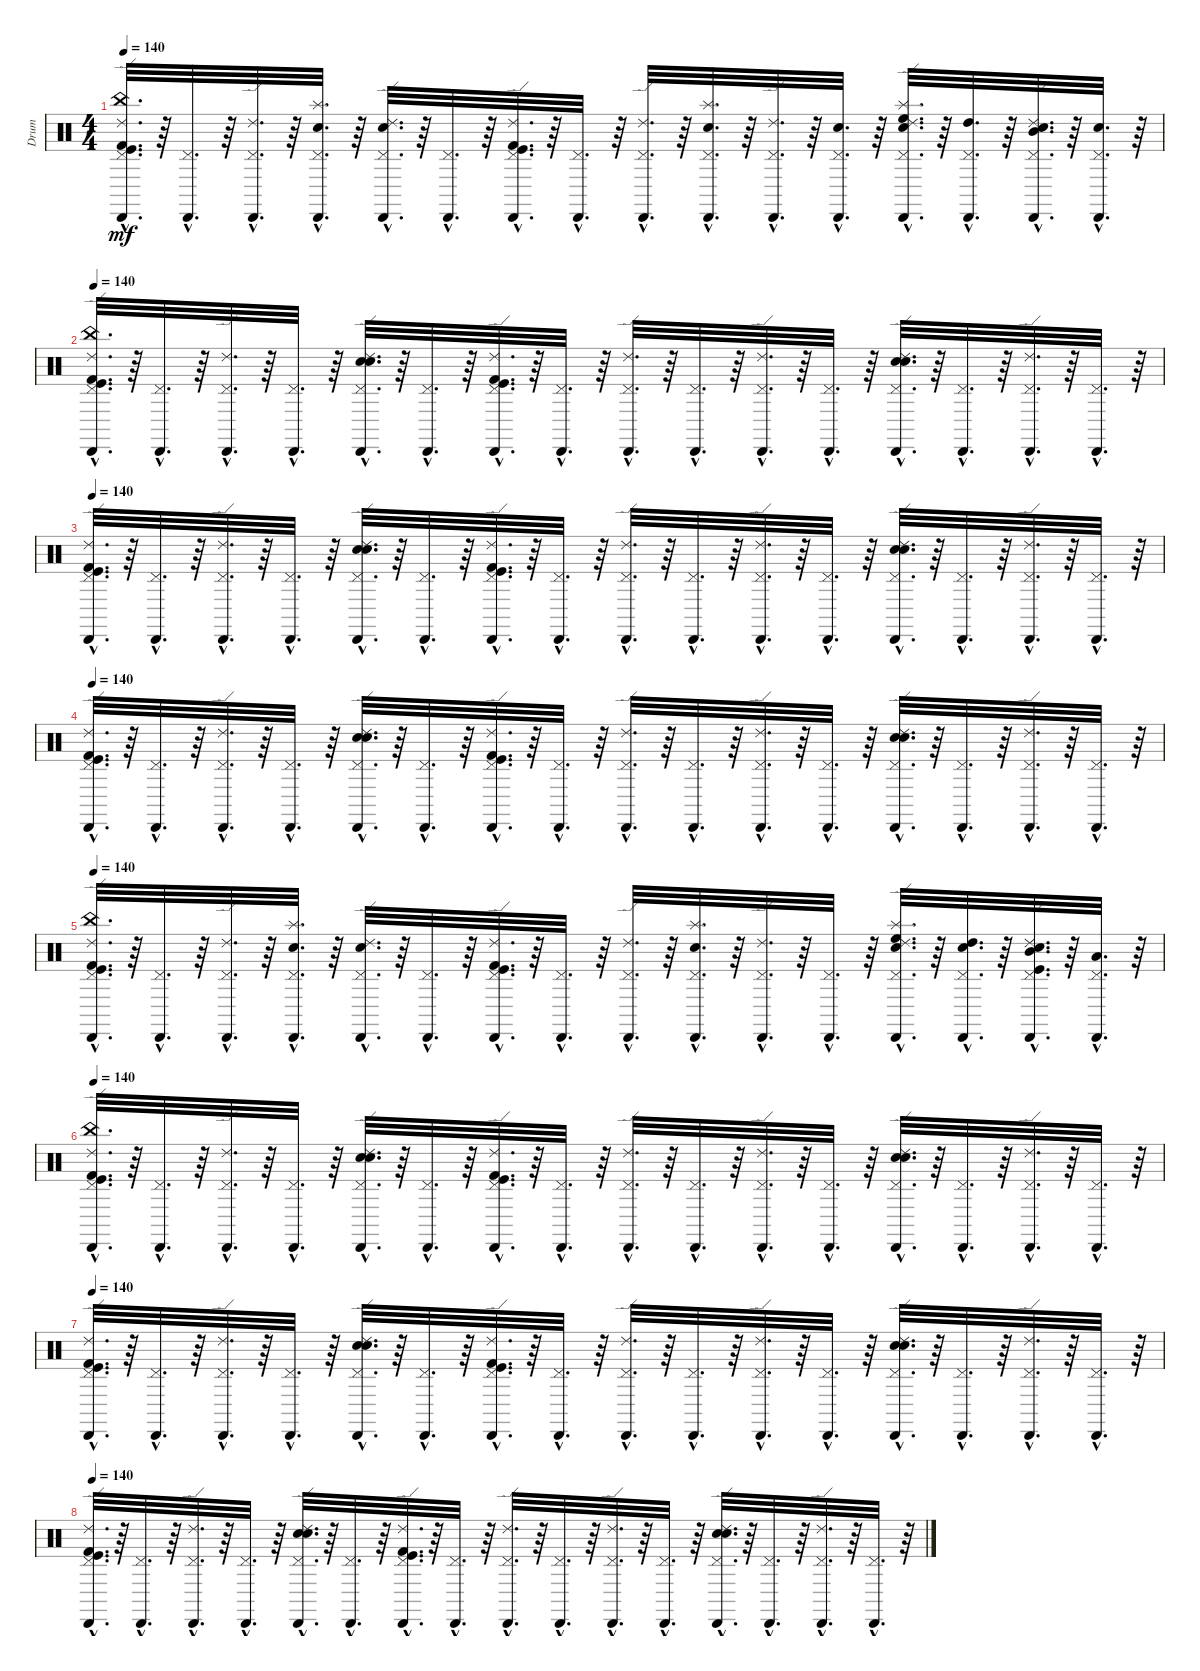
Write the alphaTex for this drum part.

\track ("Drum" "Drum") {instrument percussion}
\staff {score}
\articulation defaults
\ts (4 4)
\tempo 140
\clef neutral
\ks c
("Pedal Hi-Hat (hit)"{hac} "Kick (hit)"{hac} "Kick (hit) 2"{hac} "Ride (edge) 2"{hac} "Cabasa (hit)"{hac} "China (hit)"{hac}).32{d dy mf} r.64 ("Cabasa (hit)"{hac} "Pedal Hi-Hat (hit)"{hac}).32{d} r.64 ("Pedal Hi-Hat (hit)"{hac} "Cabasa (hit)"{hac} "Ride (edge) 2"{hac}).32{d} r.64 ("Cabasa (hit)"{hac} "Pedal Hi-Hat (hit)"{hac} "Snare (hit) 2"{hac} "Splash (hit)"{hac}).32{d} r.64 ("Pedal Hi-Hat (hit)"{hac} "Cabasa (hit)"{hac} "Ride (edge) 2"{hac} "Snare (hit) 2"{hac}).32{d} r.64 ("Pedal Hi-Hat (hit)"{hac} "Cabasa (hit)"{hac}).32{d} r.64 ("Pedal Hi-Hat (hit)"{hac} "Kick (hit) 2"{hac} "Kick (hit)"{hac} "Cabasa (hit)"{hac} "Ride (edge) 2"{hac}).32{d} r.64 ("Cabasa (hit)"{hac} "Pedal Hi-Hat (hit)"{hac}).32{d} r.64 ("Ride (edge) 2"{hac} "Pedal Hi-Hat (hit)"{hac} "Cabasa (hit)"{hac}).32{d} r.64 ("Cabasa (hit)"{hac} "Pedal Hi-Hat (hit)"{hac} "Snare (hit) 2"{hac} "Splash (hit)"{hac}).32{d} r.64 ("Ride (edge) 2"{hac} "Cabasa (hit)"{hac} "Pedal Hi-Hat (hit)"{hac}).32{d} r.64 ("Cabasa (hit)"{hac} "Pedal Hi-Hat (hit)"{hac} "Snare (hit) 2"{hac}).32{d} r.64 ("Pedal Hi-Hat (hit)"{hac} "Cabasa (hit)"{hac} "Ride (edge) 2"{hac} "Snare (hit) 2"{hac} "High Floor Tom (hit)"{hac} "Splash (hit)"{hac}).32{d} r.64 ("Cabasa (hit)"{hac} "Pedal Hi-Hat (hit)"{hac} "High Tom (hit)"{hac}).32{d} r.64 ("Pedal Hi-Hat (hit)"{hac} "Cabasa (hit)"{hac} "Ride (edge) 2"{hac} "Snare (hit) 2"{hac} "Mid Tom (hit)"{hac}).32{d} r.64 ("Cabasa (hit)"{hac} "Pedal Hi-Hat (hit)"{hac} "Snare (hit) 2"{hac}).32{d} r.64 |
\tempo 140
("China (hit)"{hac} "Ride (edge) 2"{hac} "Pedal Hi-Hat (hit)"{hac} "Cabasa (hit)"{hac} "Kick (hit)"{hac} "Kick (hit) 2"{hac}).32{d} r.64 ("Pedal Hi-Hat (hit)"{hac} "Cabasa (hit)"{hac}).32{d} r.64 ("Pedal Hi-Hat (hit)"{hac} "Cabasa (hit)"{hac} "Ride (edge) 2"{hac}).32{d} r.64 ("Pedal Hi-Hat (hit)"{hac} "Cabasa (hit)"{hac}).32{d} r.64 ("Pedal Hi-Hat (hit)"{hac} "Snare (hit) 2"{hac} "Ride (edge) 2"{hac} "Electric Snare (hit)"{hac} "Cabasa (hit)"{hac}).32{d} r.64 ("Cabasa (hit)"{hac} "Pedal Hi-Hat (hit)"{hac}).32{d} r.64 ("Kick (hit)"{hac} "Ride (edge) 2"{hac} "Pedal Hi-Hat (hit)"{hac} "Kick (hit) 2"{hac} "Cabasa (hit)"{hac}).32{d} r.64 ("Cabasa (hit)"{hac} "Pedal Hi-Hat (hit)"{hac}).32{d} r.64 ("Pedal Hi-Hat (hit)"{hac} "Ride (edge) 2"{hac} "Cabasa (hit)"{hac}).32{d} r.64 ("Cabasa (hit)"{hac} "Pedal Hi-Hat (hit)"{hac}).32{d} r.64 ("Ride (edge) 2"{hac} "Pedal Hi-Hat (hit)"{hac} "Cabasa (hit)"{hac}).32{d} r.64 ("Pedal Hi-Hat (hit)"{hac} "Cabasa (hit)"{hac}).32{d} r.64 ("Pedal Hi-Hat (hit)"{hac} "Cabasa (hit)"{hac} "Ride (edge) 2"{hac} "Snare (hit) 2"{hac} "Electric Snare (hit)"{hac}).32{d} r.64 ("Pedal Hi-Hat (hit)"{hac} "Cabasa (hit)"{hac}).32{d} r.64 ("Pedal Hi-Hat (hit)"{hac} "Cabasa (hit)"{hac} "Ride (edge) 2"{hac}).32{d} r.64 ("Pedal Hi-Hat (hit)"{hac} "Cabasa (hit)"{hac}).32{d} r.64 |
\tempo 140
("Cabasa (hit)"{hac} "Kick (hit) 2"{hac} "Pedal Hi-Hat (hit)"{hac} "Kick (hit)"{hac} "Ride (edge) 2"{hac}).32{d} r.64 ("Pedal Hi-Hat (hit)"{hac} "Cabasa (hit)"{hac}).32{d} r.64 ("Ride (edge) 2"{hac} "Pedal Hi-Hat (hit)"{hac} "Cabasa (hit)"{hac}).32{d} r.64 ("Cabasa (hit)"{hac} "Pedal Hi-Hat (hit)"{hac}).32{d} r.64 ("Pedal Hi-Hat (hit)"{hac} "Cabasa (hit)"{hac} "Snare (hit) 2"{hac} "Electric Snare (hit)"{hac} "Ride (edge) 2"{hac}).32{d} r.64 ("Pedal Hi-Hat (hit)"{hac} "Cabasa (hit)"{hac}).32{d} r.64 ("Ride (edge) 2"{hac} "Kick (hit)"{hac} "Kick (hit) 2"{hac} "Pedal Hi-Hat (hit)"{hac} "Cabasa (hit)"{hac}).32{d} r.64 ("Cabasa (hit)"{hac} "Pedal Hi-Hat (hit)"{hac}).32{d} r.64 ("Pedal Hi-Hat (hit)"{hac} "Ride (edge) 2"{hac} "Cabasa (hit)"{hac}).32{d} r.64 ("Cabasa (hit)"{hac} "Pedal Hi-Hat (hit)"{hac}).32{d} r.64 ("Pedal Hi-Hat (hit)"{hac} "Cabasa (hit)"{hac} "Ride (edge) 2"{hac}).32{d} r.64 ("Cabasa (hit)"{hac} "Pedal Hi-Hat (hit)"{hac}).32{d} r.64 ("Pedal Hi-Hat (hit)"{hac} "Electric Snare (hit)"{hac} "Cabasa (hit)"{hac} "Snare (hit) 2"{hac} "Ride (edge) 2"{hac}).32{d} r.64 ("Cabasa (hit)"{hac} "Pedal Hi-Hat (hit)"{hac}).32{d} r.64 ("Cabasa (hit)"{hac} "Pedal Hi-Hat (hit)"{hac} "Ride (edge) 2"{hac}).32{d} r.64 ("Cabasa (hit)"{hac} "Pedal Hi-Hat (hit)"{hac}).32{d} r.64 |
\tempo 140
("Kick (hit) 2"{hac} "Ride (edge) 2"{hac} "Pedal Hi-Hat (hit)"{hac} "Cabasa (hit)"{hac} "Kick (hit)"{hac}).32{d} r.64 ("Cabasa (hit)"{hac} "Pedal Hi-Hat (hit)"{hac}).32{d} r.64 ("Pedal Hi-Hat (hit)"{hac} "Cabasa (hit)"{hac} "Ride (edge) 2"{hac}).32{d} r.64 ("Pedal Hi-Hat (hit)"{hac} "Cabasa (hit)"{hac}).32{d} r.64 ("Ride (edge) 2"{hac} "Snare (hit) 2"{hac} "Pedal Hi-Hat (hit)"{hac} "Cabasa (hit)"{hac} "Electric Snare (hit)"{hac}).32{d} r.64 ("Pedal Hi-Hat (hit)"{hac} "Cabasa (hit)"{hac}).32{d} r.64 ("Ride (edge) 2"{hac} "Kick (hit)"{hac} "Cabasa (hit)"{hac} "Kick (hit) 2"{hac} "Pedal Hi-Hat (hit)"{hac}).32{d} r.64 ("Cabasa (hit)"{hac} "Pedal Hi-Hat (hit)"{hac}).32{d} r.64 ("Cabasa (hit)"{hac} "Pedal Hi-Hat (hit)"{hac} "Ride (edge) 2"{hac}).32{d} r.64 ("Cabasa (hit)"{hac} "Pedal Hi-Hat (hit)"{hac}).32{d} r.64 ("Cabasa (hit)"{hac} "Pedal Hi-Hat (hit)"{hac} "Ride (edge) 2"{hac}).32{d} r.64 ("Pedal Hi-Hat (hit)"{hac} "Cabasa (hit)"{hac}).32{d} r.64 ("Electric Snare (hit)"{hac} "Snare (hit) 2"{hac} "Ride (edge) 2"{hac} "Pedal Hi-Hat (hit)"{hac} "Cabasa (hit)"{hac}).32{d} r.64 ("Pedal Hi-Hat (hit)"{hac} "Cabasa (hit)"{hac}).32{d} r.64 ("Cabasa (hit)"{hac} "Pedal Hi-Hat (hit)"{hac} "Ride (edge) 2"{hac}).32{d} r.64 ("Pedal Hi-Hat (hit)"{hac} "Cabasa (hit)"{hac}).32{d} r.64 |
\tempo 140
("China (hit)"{hac} "Cabasa (hit)"{hac} "Ride (edge) 2"{hac} "Kick (hit) 2"{hac} "Kick (hit)"{hac} "Pedal Hi-Hat (hit)"{hac}).32{d} r.64 ("Pedal Hi-Hat (hit)"{hac} "Cabasa (hit)"{hac}).32{d} r.64 ("Ride (edge) 2"{hac} "Cabasa (hit)"{hac} "Pedal Hi-Hat (hit)"{hac}).32{d} r.64 ("Splash (hit)"{hac} "Snare (hit) 2"{hac} "Pedal Hi-Hat (hit)"{hac} "Cabasa (hit)"{hac}).32{d} r.64 ("Snare (hit) 2"{hac} "Ride (edge) 2"{hac} "Cabasa (hit)"{hac} "Pedal Hi-Hat (hit)"{hac}).32{d} r.64 ("Cabasa (hit)"{hac} "Pedal Hi-Hat (hit)"{hac}).32{d} r.64 ("Ride (edge) 2"{hac} "Cabasa (hit)"{hac} "Kick (hit)"{hac} "Kick (hit) 2"{hac} "Pedal Hi-Hat (hit)"{hac}).32{d} r.64 ("Pedal Hi-Hat (hit)"{hac} "Cabasa (hit)"{hac}).32{d} r.64 ("Cabasa (hit)"{hac} "Pedal Hi-Hat (hit)"{hac} "Ride (edge) 2"{hac}).32{d} r.64 ("Splash (hit)"{hac} "Snare (hit) 2"{hac} "Pedal Hi-Hat (hit)"{hac} "Cabasa (hit)"{hac}).32{d} r.64 ("Pedal Hi-Hat (hit)"{hac} "Cabasa (hit)"{hac} "Ride (edge) 2"{hac}).32{d} r.64 ("Pedal Hi-Hat (hit)"{hac} "Cabasa (hit)"{hac}).32{d} r.64 ("High Floor Tom (hit)"{hac} "Splash (hit)"{hac} "Snare (hit) 2"{hac} "Ride (edge) 2"{hac} "Cabasa (hit)"{hac} "Pedal Hi-Hat (hit)"{hac}).32{d} r.64 ("High Tom (hit)"{hac} "Snare (hit) 2"{hac} "Pedal Hi-Hat (hit)"{hac} "Cabasa (hit)"{hac}).32{d} r.64 ("Kick (hit)"{hac} "Mid Tom (hit)"{hac} "Snare (hit) 2"{hac} "Ride (edge) 2"{hac} "Cabasa (hit)"{hac} "Pedal Hi-Hat (hit)"{hac}).32{d} r.64 ("Low Tom (hit)"{hac} "Pedal Hi-Hat (hit)"{hac} "Cabasa (hit)"{hac}).32{d} r.64 |
\tempo 140
("Kick (hit) 2"{hac} "Kick (hit)"{hac} "Cabasa (hit)"{hac} "Pedal Hi-Hat (hit)"{hac} "Ride (edge) 2"{hac} "China (hit)"{hac}).32{d} r.64 ("Cabasa (hit)"{hac} "Pedal Hi-Hat (hit)"{hac}).32{d} r.64 ("Ride (edge) 2"{hac} "Cabasa (hit)"{hac} "Pedal Hi-Hat (hit)"{hac}).32{d} r.64 ("Cabasa (hit)"{hac} "Pedal Hi-Hat (hit)"{hac}).32{d} r.64 ("Cabasa (hit)"{hac} "Electric Snare (hit)"{hac} "Ride (edge) 2"{hac} "Snare (hit) 2"{hac} "Pedal Hi-Hat (hit)"{hac}).32{d} r.64 ("Pedal Hi-Hat (hit)"{hac} "Cabasa (hit)"{hac}).32{d} r.64 ("Cabasa (hit)"{hac} "Kick (hit) 2"{hac} "Pedal Hi-Hat (hit)"{hac} "Ride (edge) 2"{hac} "Kick (hit)"{hac}).32{d} r.64 ("Pedal Hi-Hat (hit)"{hac} "Cabasa (hit)"{hac}).32{d} r.64 ("Cabasa (hit)"{hac} "Ride (edge) 2"{hac} "Pedal Hi-Hat (hit)"{hac}).32{d} r.64 ("Pedal Hi-Hat (hit)"{hac} "Cabasa (hit)"{hac}).32{d} r.64 ("Cabasa (hit)"{hac} "Pedal Hi-Hat (hit)"{hac} "Ride (edge) 2"{hac}).32{d} r.64 ("Cabasa (hit)"{hac} "Pedal Hi-Hat (hit)"{hac}).32{d} r.64 ("Electric Snare (hit)"{hac} "Snare (hit) 2"{hac} "Ride (edge) 2"{hac} "Cabasa (hit)"{hac} "Pedal Hi-Hat (hit)"{hac}).32{d} r.64 ("Cabasa (hit)"{hac} "Pedal Hi-Hat (hit)"{hac}).32{d} r.64 ("Ride (edge) 2"{hac} "Cabasa (hit)"{hac} "Pedal Hi-Hat (hit)"{hac}).32{d} r.64 ("Cabasa (hit)"{hac} "Pedal Hi-Hat (hit)"{hac}).32{d} r.64 |
\tempo 140
("Ride (edge) 2"{hac} "Kick (hit)"{hac} "Pedal Hi-Hat (hit)"{hac} "Kick (hit) 2"{hac} "Cabasa (hit)"{hac}).32{d} r.64 ("Cabasa (hit)"{hac} "Pedal Hi-Hat (hit)"{hac}).32{d} r.64 ("Cabasa (hit)"{hac} "Pedal Hi-Hat (hit)"{hac} "Ride (edge) 2"{hac}).32{d} r.64 ("Pedal Hi-Hat (hit)"{hac} "Cabasa (hit)"{hac}).32{d} r.64 ("Ride (edge) 2"{hac} "Electric Snare (hit)"{hac} "Snare (hit) 2"{hac} "Cabasa (hit)"{hac} "Pedal Hi-Hat (hit)"{hac}).32{d} r.64 ("Cabasa (hit)"{hac} "Pedal Hi-Hat (hit)"{hac}).32{d} r.64 ("Cabasa (hit)"{hac} "Pedal Hi-Hat (hit)"{hac} "Kick (hit) 2"{hac} "Kick (hit)"{hac} "Ride (edge) 2"{hac}).32{d} r.64 ("Pedal Hi-Hat (hit)"{hac} "Cabasa (hit)"{hac}).32{d} r.64 ("Cabasa (hit)"{hac} "Ride (edge) 2"{hac} "Pedal Hi-Hat (hit)"{hac}).32{d} r.64 ("Pedal Hi-Hat (hit)"{hac} "Cabasa (hit)"{hac}).32{d} r.64 ("Ride (edge) 2"{hac} "Cabasa (hit)"{hac} "Pedal Hi-Hat (hit)"{hac}).32{d} r.64 ("Pedal Hi-Hat (hit)"{hac} "Cabasa (hit)"{hac}).32{d} r.64 ("Ride (edge) 2"{hac} "Snare (hit) 2"{hac} "Cabasa (hit)"{hac} "Electric Snare (hit)"{hac} "Pedal Hi-Hat (hit)"{hac}).32{d} r.64 ("Pedal Hi-Hat (hit)"{hac} "Cabasa (hit)"{hac}).32{d} r.64 ("Ride (edge) 2"{hac} "Pedal Hi-Hat (hit)"{hac} "Cabasa (hit)"{hac}).32{d} r.64 ("Pedal Hi-Hat (hit)"{hac} "Cabasa (hit)"{hac}).32{d} r.64 |
\tempo 140
("Kick (hit)"{hac} "Cabasa (hit)"{hac} "Pedal Hi-Hat (hit)"{hac} "Ride (edge) 2"{hac} "Kick (hit) 2"{hac}).32{d} r.64 ("Pedal Hi-Hat (hit)"{hac} "Cabasa (hit)"{hac}).32{d} r.64 ("Ride (edge) 2"{hac} "Cabasa (hit)"{hac} "Pedal Hi-Hat (hit)"{hac}).32{d} r.64 ("Cabasa (hit)"{hac} "Pedal Hi-Hat (hit)"{hac}).32{d} r.64 ("Electric Snare (hit)"{hac} "Cabasa (hit)"{hac} "Pedal Hi-Hat (hit)"{hac} "Snare (hit) 2"{hac} "Ride (edge) 2"{hac}).32{d} r.64 ("Cabasa (hit)"{hac} "Pedal Hi-Hat (hit)"{hac}).32{d} r.64 ("Pedal Hi-Hat (hit)"{hac} "Kick (hit) 2"{hac} "Cabasa (hit)"{hac} "Kick (hit)"{hac} "Ride (edge) 2"{hac}).32{d} r.64 ("Pedal Hi-Hat (hit)"{hac} "Cabasa (hit)"{hac}).32{d} r.64 ("Ride (edge) 2"{hac} "Pedal Hi-Hat (hit)"{hac} "Cabasa (hit)"{hac}).32{d} r.64 ("Pedal Hi-Hat (hit)"{hac} "Cabasa (hit)"{hac}).32{d} r.64 ("Ride (edge) 2"{hac} "Pedal Hi-Hat (hit)"{hac} "Cabasa (hit)"{hac}).32{d} r.64 ("Cabasa (hit)"{hac} "Pedal Hi-Hat (hit)"{hac}).32{d} r.64 ("Cabasa (hit)"{hac} "Pedal Hi-Hat (hit)"{hac} "Ride (edge) 2"{hac} "Snare (hit) 2"{hac} "Electric Snare (hit)"{hac}).32{d} r.64 ("Cabasa (hit)"{hac} "Pedal Hi-Hat (hit)"{hac}).32{d} r.64 ("Ride (edge) 2"{hac} "Pedal Hi-Hat (hit)"{hac} "Cabasa (hit)"{hac}).32{d} r.64 ("Cabasa (hit)"{hac} "Pedal Hi-Hat (hit)"{hac}).32{d} r.64
